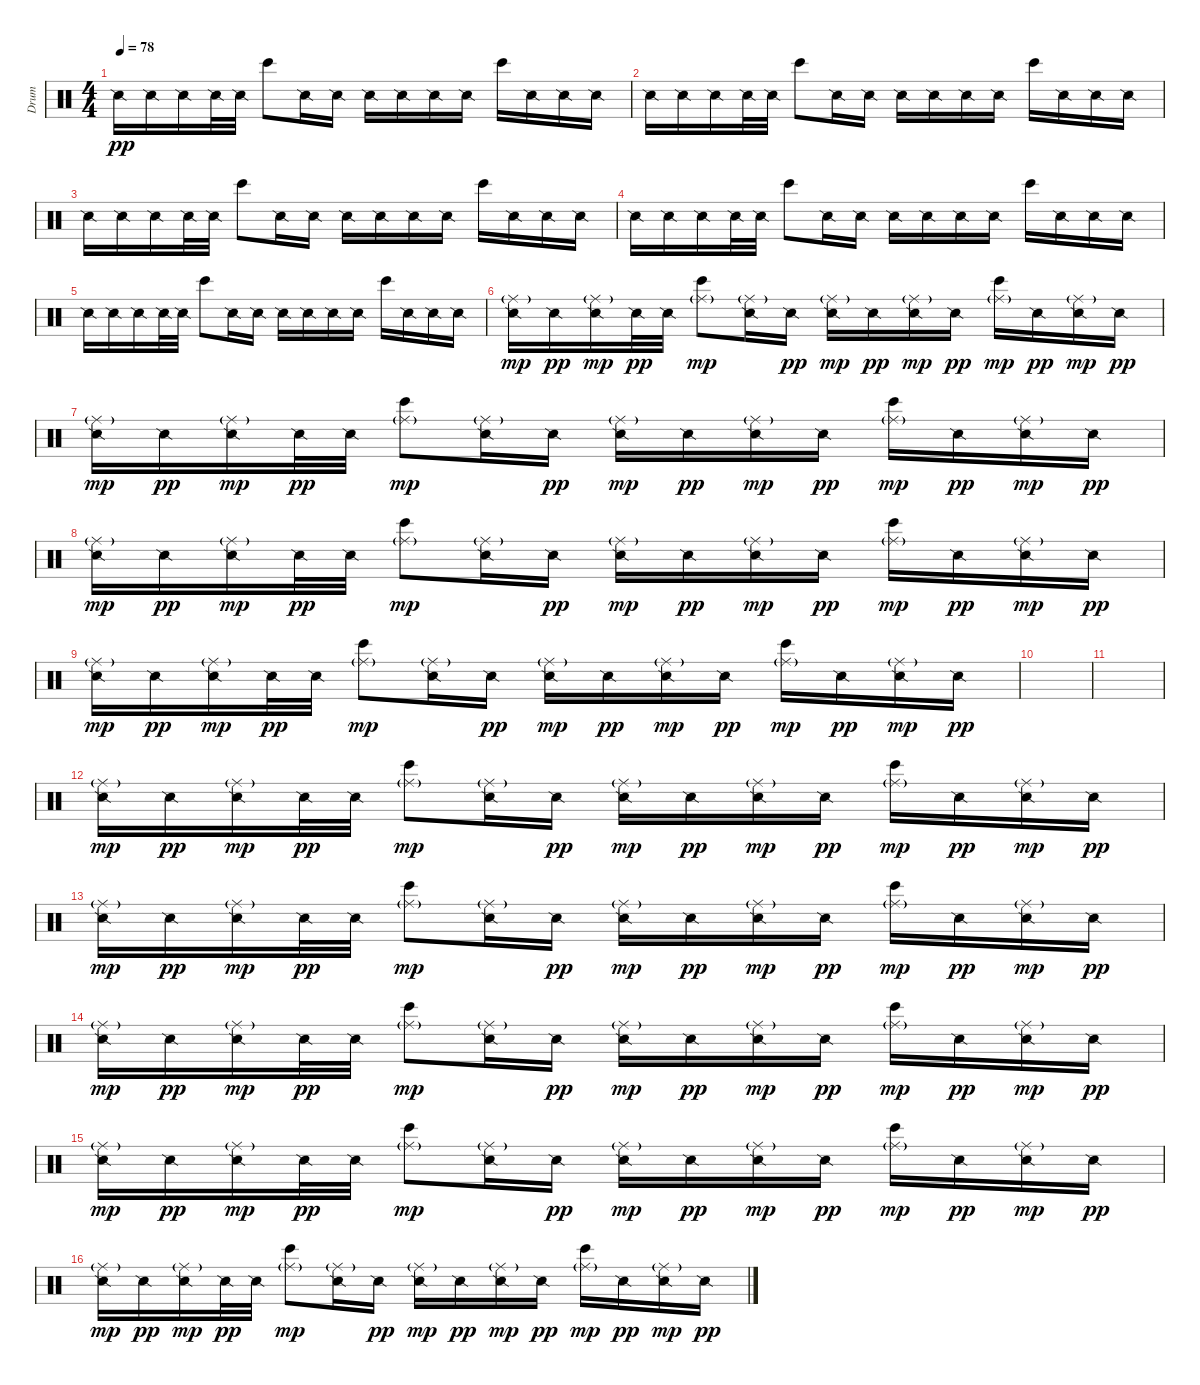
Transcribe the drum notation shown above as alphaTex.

\track ("Drum" "Drum") {instrument percussion}
\staff {score}
\articulation defaults
\ts (4 4)
\tempo 78
\clef neutral
\ks c "Snare (side stick) 2".16{dy pp} "Snare (side stick) 2".16 "Snare (side stick) 2".16 "Snare (side stick) 2".32 "Snare (side stick) 2".32 "Bongo High (hit)".8 "Snare (side stick) 2".16 "Snare (side stick) 2".16 "Snare (side stick) 2".16 "Snare (side stick) 2".16 "Snare (side stick) 2".16 "Snare (side stick) 2".16 "Bongo High (hit)".16 "Snare (side stick) 2".16 "Snare (side stick) 2".16 "Snare (side stick) 2".16
|
"Snare (side stick) 2".16 "Snare (side stick) 2".16 "Snare (side stick) 2".16 "Snare (side stick) 2".32 "Snare (side stick) 2".32 "Bongo High (hit)".8 "Snare (side stick) 2".16 "Snare (side stick) 2".16 "Snare (side stick) 2".16 "Snare (side stick) 2".16 "Snare (side stick) 2".16 "Snare (side stick) 2".16 "Bongo High (hit)".16 "Snare (side stick) 2".16 "Snare (side stick) 2".16 "Snare (side stick) 2".16 |
"Snare (side stick) 2".16 "Snare (side stick) 2".16 "Snare (side stick) 2".16 "Snare (side stick) 2".32 "Snare (side stick) 2".32 "Bongo High (hit)".8 "Snare (side stick) 2".16 "Snare (side stick) 2".16 "Snare (side stick) 2".16 "Snare (side stick) 2".16 "Snare (side stick) 2".16 "Snare (side stick) 2".16 "Bongo High (hit)".16 "Snare (side stick) 2".16 "Snare (side stick) 2".16 "Snare (side stick) 2".16 |
"Snare (side stick) 2".16 "Snare (side stick) 2".16 "Snare (side stick) 2".16 "Snare (side stick) 2".32 "Snare (side stick) 2".32 "Bongo High (hit)".8 "Snare (side stick) 2".16 "Snare (side stick) 2".16 "Snare (side stick) 2".16 "Snare (side stick) 2".16 "Snare (side stick) 2".16 "Snare (side stick) 2".16 "Bongo High (hit)".16 "Snare (side stick) 2".16 "Snare (side stick) 2".16 "Snare (side stick) 2".16 |
"Snare (side stick) 2".16 "Snare (side stick) 2".16 "Snare (side stick) 2".16 "Snare (side stick) 2".32 "Snare (side stick) 2".32 "Bongo High (hit)".8 "Snare (side stick) 2".16 "Snare (side stick) 2".16 "Snare (side stick) 2".16 "Snare (side stick) 2".16 "Snare (side stick) 2".16 "Snare (side stick) 2".16 "Bongo High (hit)".16 "Snare (side stick) 2".16 "Snare (side stick) 2".16 "Snare (side stick) 2".16 |
("Snare (side stick) 2" "Ride (middle)"{g}).16{dy mp} "Snare (side stick) 2".16{dy pp} ("Snare (side stick) 2" "Ride (middle)"{g}).16{dy mp} "Snare (side stick) 2".32{dy pp} "Snare (side stick) 2".32 ("Bongo High (hit)" "Ride (middle)"{g}).8{dy mp} ("Snare (side stick) 2" "Ride (middle)"{g}).16 "Snare (side stick) 2".16{dy pp} ("Snare (side stick) 2" "Ride (middle)"{g}).16{dy mp} "Snare (side stick) 2".16{dy pp} ("Snare (side stick) 2" "Ride (middle)"{g}).16{dy mp} "Snare (side stick) 2".16{dy pp} ("Bongo High (hit)" "Ride (middle)"{g}).16{dy mp} "Snare (side stick) 2".16{dy pp} ("Snare (side stick) 2" "Ride (middle)"{g}).16{dy mp} "Snare (side stick) 2".16{dy pp} |
("Snare (side stick) 2" "Ride (middle)"{g}).16{dy mp} "Snare (side stick) 2".16{dy pp} ("Snare (side stick) 2" "Ride (middle)"{g}).16{dy mp} "Snare (side stick) 2".32{dy pp} "Snare (side stick) 2".32 ("Bongo High (hit)" "Ride (middle)"{g}).8{dy mp} ("Snare (side stick) 2" "Ride (middle)"{g}).16 "Snare (side stick) 2".16{dy pp} ("Snare (side stick) 2" "Ride (middle)"{g}).16{dy mp} "Snare (side stick) 2".16{dy pp} ("Snare (side stick) 2" "Ride (middle)"{g}).16{dy mp} "Snare (side stick) 2".16{dy pp} ("Bongo High (hit)" "Ride (middle)"{g}).16{dy mp} "Snare (side stick) 2".16{dy pp} ("Snare (side stick) 2" "Ride (middle)"{g}).16{dy mp} "Snare (side stick) 2".16{dy pp} |
("Snare (side stick) 2" "Ride (middle)"{g}).16{dy mp} "Snare (side stick) 2".16{dy pp} ("Snare (side stick) 2" "Ride (middle)"{g}).16{dy mp} "Snare (side stick) 2".32{dy pp} "Snare (side stick) 2".32 ("Bongo High (hit)" "Ride (middle)"{g}).8{dy mp} ("Snare (side stick) 2" "Ride (middle)"{g}).16 "Snare (side stick) 2".16{dy pp} ("Snare (side stick) 2" "Ride (middle)"{g}).16{dy mp} "Snare (side stick) 2".16{dy pp} ("Snare (side stick) 2" "Ride (middle)"{g}).16{dy mp} "Snare (side stick) 2".16{dy pp} ("Bongo High (hit)" "Ride (middle)"{g}).16{dy mp} "Snare (side stick) 2".16{dy pp} ("Snare (side stick) 2" "Ride (middle)"{g}).16{dy mp} "Snare (side stick) 2".16{dy pp} |
("Snare (side stick) 2" "Ride (middle)"{g}).16{dy mp} "Snare (side stick) 2".16{dy pp} ("Snare (side stick) 2" "Ride (middle)"{g}).16{dy mp} "Snare (side stick) 2".32{dy pp} "Snare (side stick) 2".32 ("Bongo High (hit)" "Ride (middle)"{g}).8{dy mp} ("Snare (side stick) 2" "Ride (middle)"{g}).16 "Snare (side stick) 2".16{dy pp} ("Snare (side stick) 2" "Ride (middle)"{g}).16{dy mp} "Snare (side stick) 2".16{dy pp} ("Snare (side stick) 2" "Ride (middle)"{g}).16{dy mp} "Snare (side stick) 2".16{dy pp} ("Bongo High (hit)" "Ride (middle)"{g}).16{dy mp} "Snare (side stick) 2".16{dy pp} ("Snare (side stick) 2" "Ride (middle)"{g}).16{dy mp} "Snare (side stick) 2".16{dy pp} |
|
|
("Snare (side stick) 2" "Ride (middle)"{g}).16{dy mp} "Snare (side stick) 2".16{dy pp} ("Snare (side stick) 2" "Ride (middle)"{g}).16{dy mp} "Snare (side stick) 2".32{dy pp} "Snare (side stick) 2".32 ("Bongo High (hit)" "Ride (middle)"{g}).8{dy mp} ("Snare (side stick) 2" "Ride (middle)"{g}).16 "Snare (side stick) 2".16{dy pp} ("Snare (side stick) 2" "Ride (middle)"{g}).16{dy mp} "Snare (side stick) 2".16{dy pp} ("Snare (side stick) 2" "Ride (middle)"{g}).16{dy mp} "Snare (side stick) 2".16{dy pp} ("Bongo High (hit)" "Ride (middle)"{g}).16{dy mp} "Snare (side stick) 2".16{dy pp} ("Snare (side stick) 2" "Ride (middle)"{g}).16{dy mp} "Snare (side stick) 2".16{dy pp} |
("Snare (side stick) 2" "Ride (middle)"{g}).16{dy mp} "Snare (side stick) 2".16{dy pp} ("Snare (side stick) 2" "Ride (middle)"{g}).16{dy mp} "Snare (side stick) 2".32{dy pp} "Snare (side stick) 2".32 ("Bongo High (hit)" "Ride (middle)"{g}).8{dy mp} ("Snare (side stick) 2" "Ride (middle)"{g}).16 "Snare (side stick) 2".16{dy pp} ("Snare (side stick) 2" "Ride (middle)"{g}).16{dy mp} "Snare (side stick) 2".16{dy pp} ("Snare (side stick) 2" "Ride (middle)"{g}).16{dy mp} "Snare (side stick) 2".16{dy pp} ("Bongo High (hit)" "Ride (middle)"{g}).16{dy mp} "Snare (side stick) 2".16{dy pp} ("Snare (side stick) 2" "Ride (middle)"{g}).16{dy mp} "Snare (side stick) 2".16{dy pp} |
("Snare (side stick) 2" "Ride (middle)"{g}).16{dy mp} "Snare (side stick) 2".16{dy pp} ("Snare (side stick) 2" "Ride (middle)"{g}).16{dy mp} "Snare (side stick) 2".32{dy pp} "Snare (side stick) 2".32 ("Bongo High (hit)" "Ride (middle)"{g}).8{dy mp} ("Snare (side stick) 2" "Ride (middle)"{g}).16 "Snare (side stick) 2".16{dy pp} ("Snare (side stick) 2" "Ride (middle)"{g}).16{dy mp} "Snare (side stick) 2".16{dy pp} ("Snare (side stick) 2" "Ride (middle)"{g}).16{dy mp} "Snare (side stick) 2".16{dy pp} ("Bongo High (hit)" "Ride (middle)"{g}).16{dy mp} "Snare (side stick) 2".16{dy pp} ("Snare (side stick) 2" "Ride (middle)"{g}).16{dy mp} "Snare (side stick) 2".16{dy pp} |
("Snare (side stick) 2" "Ride (middle)"{g}).16{dy mp} "Snare (side stick) 2".16{dy pp} ("Snare (side stick) 2" "Ride (middle)"{g}).16{dy mp} "Snare (side stick) 2".32{dy pp} "Snare (side stick) 2".32 ("Bongo High (hit)" "Ride (middle)"{g}).8{dy mp} ("Snare (side stick) 2" "Ride (middle)"{g}).16 "Snare (side stick) 2".16{dy pp} ("Snare (side stick) 2" "Ride (middle)"{g}).16{dy mp} "Snare (side stick) 2".16{dy pp} ("Snare (side stick) 2" "Ride (middle)"{g}).16{dy mp} "Snare (side stick) 2".16{dy pp} ("Bongo High (hit)" "Ride (middle)"{g}).16{dy mp} "Snare (side stick) 2".16{dy pp} ("Snare (side stick) 2" "Ride (middle)"{g}).16{dy mp} "Snare (side stick) 2".16{dy pp} |
("Snare (side stick) 2" "Ride (middle)"{g}).16{dy mp} "Snare (side stick) 2".16{dy pp} ("Snare (side stick) 2" "Ride (middle)"{g}).16{dy mp} "Snare (side stick) 2".32{dy pp} "Snare (side stick) 2".32 ("Bongo High (hit)" "Ride (middle)"{g}).8{dy mp} ("Snare (side stick) 2" "Ride (middle)"{g}).16 "Snare (side stick) 2".16{dy pp} ("Snare (side stick) 2" "Ride (middle)"{g}).16{dy mp} "Snare (side stick) 2".16{dy pp} ("Snare (side stick) 2" "Ride (middle)"{g}).16{dy mp} "Snare (side stick) 2".16{dy pp} ("Bongo High (hit)" "Ride (middle)"{g}).16{dy mp} "Snare (side stick) 2".16{dy pp} ("Snare (side stick) 2" "Ride (middle)"{g}).16{dy mp} "Snare (side stick) 2".16{dy pp}
